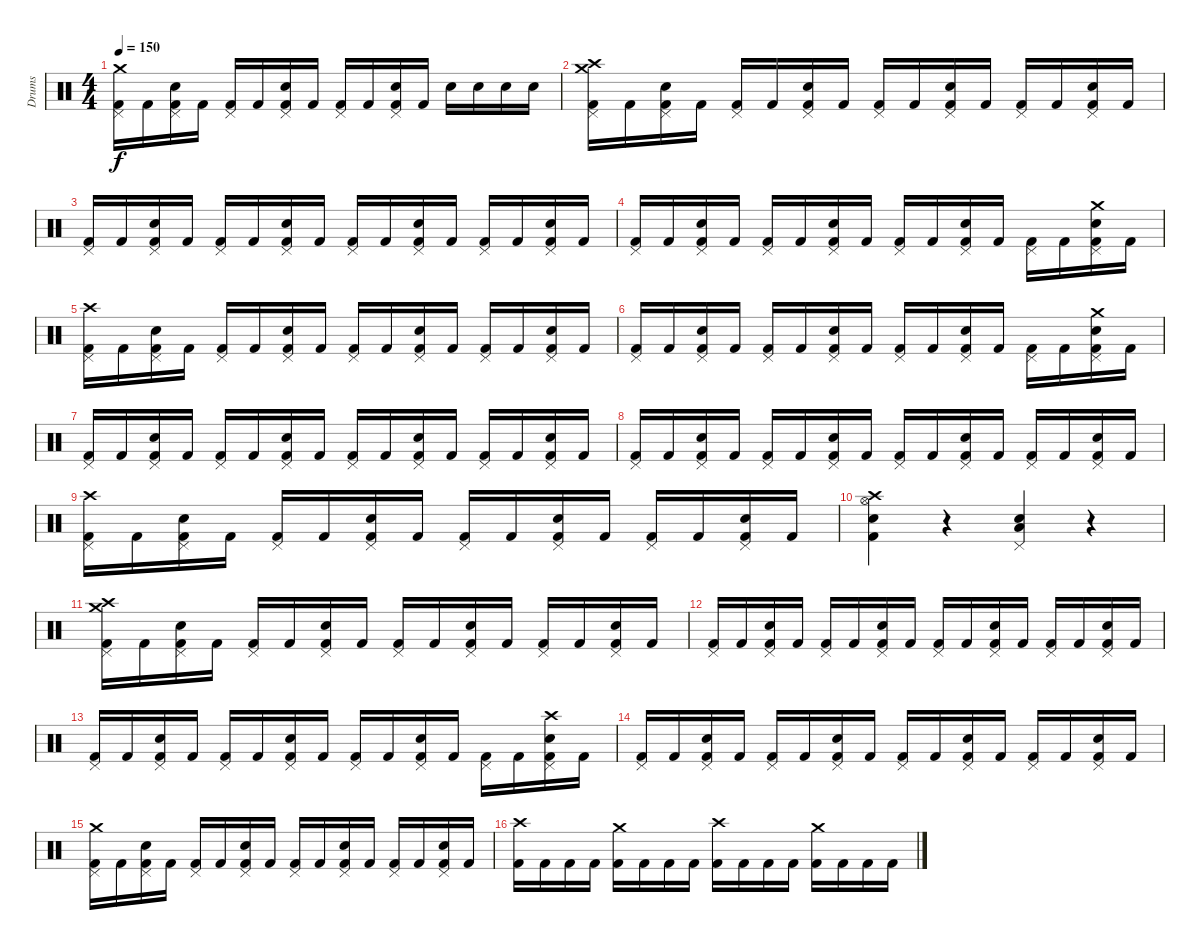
\track ("Drums" "Drums") {instrument percussion}
\staff {score}
\articulation defaults
\ts (4 4)
\tempo 150
\clef neutral
\ks c
("Crash medium (hit)" "Pedal Hi-Hat (hit)" "Kick (hit) 2").16{dy f} "Kick (hit) 2".16 ("Pedal Hi-Hat (hit)" "Kick (hit) 2" "Electric Snare (hit)").16 "Kick (hit) 2".16 ("Pedal Hi-Hat (hit)" "Kick (hit) 2").16 "Kick (hit) 2".16 ("Pedal Hi-Hat (hit)" "Kick (hit) 2" "Electric Snare (hit)").16 "Kick (hit) 2".16 ("Pedal Hi-Hat (hit)" "Kick (hit) 2").16 "Kick (hit) 2".16 ("Pedal Hi-Hat (hit)" "Kick (hit) 2" "Electric Snare (hit)").16 "Kick (hit) 2".16 "Electric Snare (hit)".16 "Electric Snare (hit)".16 "Electric Snare (hit)".16 "Electric Snare (hit)".16 |
("Crash medium (hit)" "Pedal Hi-Hat (hit)" "Kick (hit) 2" "Crash high (hit)").16 "Kick (hit) 2".16 ("Pedal Hi-Hat (hit)" "Kick (hit) 2" "Electric Snare (hit)").16 "Kick (hit) 2".16 ("Pedal Hi-Hat (hit)" "Kick (hit) 2").16 "Kick (hit) 2".16 ("Pedal Hi-Hat (hit)" "Kick (hit) 2" "Electric Snare (hit)").16 "Kick (hit) 2".16 ("Pedal Hi-Hat (hit)" "Kick (hit) 2").16 "Kick (hit) 2".16 ("Pedal Hi-Hat (hit)" "Kick (hit) 2" "Electric Snare (hit)").16 "Kick (hit) 2".16 ("Pedal Hi-Hat (hit)" "Kick (hit) 2").16 "Kick (hit) 2".16 ("Pedal Hi-Hat (hit)" "Kick (hit) 2" "Electric Snare (hit)").16 "Kick (hit) 2".16 |
("Pedal Hi-Hat (hit)" "Kick (hit) 2").16 "Kick (hit) 2".16 ("Pedal Hi-Hat (hit)" "Kick (hit) 2" "Electric Snare (hit)").16 "Kick (hit) 2".16 ("Pedal Hi-Hat (hit)" "Kick (hit) 2").16 "Kick (hit) 2".16 ("Pedal Hi-Hat (hit)" "Kick (hit) 2" "Electric Snare (hit)").16 "Kick (hit) 2".16 ("Pedal Hi-Hat (hit)" "Kick (hit) 2").16 "Kick (hit) 2".16 ("Pedal Hi-Hat (hit)" "Kick (hit) 2" "Electric Snare (hit)").16 "Kick (hit) 2".16 ("Pedal Hi-Hat (hit)" "Kick (hit) 2").16 "Kick (hit) 2".16 ("Pedal Hi-Hat (hit)" "Kick (hit) 2" "Electric Snare (hit)").16 "Kick (hit) 2".16 |
("Pedal Hi-Hat (hit)" "Kick (hit) 2").16 "Kick (hit) 2".16 ("Pedal Hi-Hat (hit)" "Kick (hit) 2" "Electric Snare (hit)").16 "Kick (hit) 2".16 ("Pedal Hi-Hat (hit)" "Kick (hit) 2").16 "Kick (hit) 2".16 ("Pedal Hi-Hat (hit)" "Kick (hit) 2" "Electric Snare (hit)").16 "Kick (hit) 2".16 ("Pedal Hi-Hat (hit)" "Kick (hit) 2").16 "Kick (hit) 2".16 ("Pedal Hi-Hat (hit)" "Kick (hit) 2" "Electric Snare (hit)").16 "Kick (hit) 2".16 ("Pedal Hi-Hat (hit)" "Kick (hit) 2").16 "Kick (hit) 2".16 ("Crash medium (hit)" "Pedal Hi-Hat (hit)" "Kick (hit) 2" "Electric Snare (hit)").16 "Kick (hit) 2".16 |
("Crash high (hit)" "Pedal Hi-Hat (hit)" "Kick (hit) 2").16 "Kick (hit) 2".16 ("Pedal Hi-Hat (hit)" "Kick (hit) 2" "Electric Snare (hit)").16 "Kick (hit) 2".16 ("Pedal Hi-Hat (hit)" "Kick (hit) 2").16 "Kick (hit) 2".16 ("Pedal Hi-Hat (hit)" "Kick (hit) 2" "Electric Snare (hit)").16 "Kick (hit) 2".16 ("Pedal Hi-Hat (hit)" "Kick (hit) 2").16 "Kick (hit) 2".16 ("Pedal Hi-Hat (hit)" "Kick (hit) 2" "Electric Snare (hit)").16 "Kick (hit) 2".16 ("Pedal Hi-Hat (hit)" "Kick (hit) 2").16 "Kick (hit) 2".16 ("Pedal Hi-Hat (hit)" "Kick (hit) 2" "Electric Snare (hit)").16 "Kick (hit) 2".16 |
("Pedal Hi-Hat (hit)" "Kick (hit) 2").16 "Kick (hit) 2".16 ("Pedal Hi-Hat (hit)" "Kick (hit) 2" "Electric Snare (hit)").16 "Kick (hit) 2".16 ("Pedal Hi-Hat (hit)" "Kick (hit) 2").16 "Kick (hit) 2".16 ("Pedal Hi-Hat (hit)" "Kick (hit) 2" "Electric Snare (hit)").16 "Kick (hit) 2".16 ("Pedal Hi-Hat (hit)" "Kick (hit) 2").16 "Kick (hit) 2".16 ("Pedal Hi-Hat (hit)" "Kick (hit) 2" "Electric Snare (hit)").16 "Kick (hit) 2".16 ("Pedal Hi-Hat (hit)" "Kick (hit) 2").16 "Kick (hit) 2".16 ("Crash medium (hit)" "Pedal Hi-Hat (hit)" "Kick (hit) 2" "Electric Snare (hit)").16 "Kick (hit) 2".16 |
("Pedal Hi-Hat (hit)" "Kick (hit) 2").16 "Kick (hit) 2".16 ("Pedal Hi-Hat (hit)" "Kick (hit) 2" "Electric Snare (hit)").16 "Kick (hit) 2".16 ("Pedal Hi-Hat (hit)" "Kick (hit) 2").16 "Kick (hit) 2".16 ("Pedal Hi-Hat (hit)" "Kick (hit) 2" "Electric Snare (hit)").16 "Kick (hit) 2".16 ("Pedal Hi-Hat (hit)" "Kick (hit) 2").16 "Kick (hit) 2".16 ("Pedal Hi-Hat (hit)" "Kick (hit) 2" "Electric Snare (hit)").16 "Kick (hit) 2".16 ("Pedal Hi-Hat (hit)" "Kick (hit) 2").16 "Kick (hit) 2".16 ("Pedal Hi-Hat (hit)" "Kick (hit) 2" "Electric Snare (hit)").16 "Kick (hit) 2".16 |
("Pedal Hi-Hat (hit)" "Kick (hit) 2").16 "Kick (hit) 2".16 ("Pedal Hi-Hat (hit)" "Kick (hit) 2" "Electric Snare (hit)").16 "Kick (hit) 2".16 ("Pedal Hi-Hat (hit)" "Kick (hit) 2").16 "Kick (hit) 2".16 ("Pedal Hi-Hat (hit)" "Kick (hit) 2" "Electric Snare (hit)").16 "Kick (hit) 2".16 ("Pedal Hi-Hat (hit)" "Kick (hit) 2").16 "Kick (hit) 2".16 ("Pedal Hi-Hat (hit)" "Kick (hit) 2" "Electric Snare (hit)").16 "Kick (hit) 2".16 ("Pedal Hi-Hat (hit)" "Kick (hit) 2").16 "Kick (hit) 2".16 ("Pedal Hi-Hat (hit)" "Kick (hit) 2" "Electric Snare (hit)").16 "Kick (hit) 2".16 |
("Crash high (hit)" "Pedal Hi-Hat (hit)" "Kick (hit) 2").16 "Kick (hit) 2".16 ("Pedal Hi-Hat (hit)" "Kick (hit) 2" "Electric Snare (hit)").16 "Kick (hit) 2".16 ("Pedal Hi-Hat (hit)" "Kick (hit) 2").16 "Kick (hit) 2".16 ("Pedal Hi-Hat (hit)" "Kick (hit) 2" "Electric Snare (hit)").16 "Kick (hit) 2".16 ("Pedal Hi-Hat (hit)" "Kick (hit) 2").16 "Kick (hit) 2".16 ("Pedal Hi-Hat (hit)" "Kick (hit) 2" "Electric Snare (hit)").16 "Kick (hit) 2".16 ("Pedal Hi-Hat (hit)" "Kick (hit) 2").16 "Kick (hit) 2".16 ("Pedal Hi-Hat (hit)" "Kick (hit) 2" "Electric Snare (hit)").16 "Kick (hit) 2".16 |
("Hi-Hat (open)" "Crash high (hit)" "Kick (hit) 2" "Electric Snare (hit)").4 r.4 ("Pedal Hi-Hat (hit)" "Electric Snare (hit)" "Low Tom (hit)").4 r.4 |
("Crash high (hit)" "Pedal Hi-Hat (hit)" "Kick (hit) 2" "Crash medium (hit)").16 "Kick (hit) 2".16 ("Pedal Hi-Hat (hit)" "Kick (hit) 2" "Electric Snare (hit)").16 "Kick (hit) 2".16 ("Pedal Hi-Hat (hit)" "Kick (hit) 2").16 "Kick (hit) 2".16 ("Pedal Hi-Hat (hit)" "Kick (hit) 2" "Electric Snare (hit)").16 "Kick (hit) 2".16 ("Pedal Hi-Hat (hit)" "Kick (hit) 2").16 "Kick (hit) 2".16 ("Pedal Hi-Hat (hit)" "Kick (hit) 2" "Electric Snare (hit)").16 "Kick (hit) 2".16 ("Pedal Hi-Hat (hit)" "Kick (hit) 2").16 "Kick (hit) 2".16 ("Pedal Hi-Hat (hit)" "Kick (hit) 2" "Electric Snare (hit)").16 "Kick (hit) 2".16 |
("Pedal Hi-Hat (hit)" "Kick (hit) 2").16 "Kick (hit) 2".16 ("Pedal Hi-Hat (hit)" "Kick (hit) 2" "Electric Snare (hit)").16 "Kick (hit) 2".16 ("Pedal Hi-Hat (hit)" "Kick (hit) 2").16 "Kick (hit) 2".16 ("Pedal Hi-Hat (hit)" "Kick (hit) 2" "Electric Snare (hit)").16 "Kick (hit) 2".16 ("Pedal Hi-Hat (hit)" "Kick (hit) 2").16 "Kick (hit) 2".16 ("Pedal Hi-Hat (hit)" "Kick (hit) 2" "Electric Snare (hit)").16 "Kick (hit) 2".16 ("Pedal Hi-Hat (hit)" "Kick (hit) 2").16 "Kick (hit) 2".16 ("Pedal Hi-Hat (hit)" "Kick (hit) 2" "Electric Snare (hit)").16 "Kick (hit) 2".16 |
("Pedal Hi-Hat (hit)" "Kick (hit) 2").16 "Kick (hit) 2".16 ("Pedal Hi-Hat (hit)" "Kick (hit) 2" "Electric Snare (hit)").16 "Kick (hit) 2".16 ("Pedal Hi-Hat (hit)" "Kick (hit) 2").16 "Kick (hit) 2".16 ("Pedal Hi-Hat (hit)" "Kick (hit) 2" "Electric Snare (hit)").16 "Kick (hit) 2".16 ("Pedal Hi-Hat (hit)" "Kick (hit) 2").16 "Kick (hit) 2".16 ("Pedal Hi-Hat (hit)" "Kick (hit) 2" "Electric Snare (hit)").16 "Kick (hit) 2".16 ("Pedal Hi-Hat (hit)" "Kick (hit) 2").16 "Kick (hit) 2".16 ("Crash high (hit)" "Pedal Hi-Hat (hit)" "Kick (hit) 2" "Electric Snare (hit)").16 "Kick (hit) 2".16 |
("Pedal Hi-Hat (hit)" "Kick (hit) 2").16 "Kick (hit) 2".16 ("Pedal Hi-Hat (hit)" "Kick (hit) 2" "Electric Snare (hit)").16 "Kick (hit) 2".16 ("Pedal Hi-Hat (hit)" "Kick (hit) 2").16 "Kick (hit) 2".16 ("Pedal Hi-Hat (hit)" "Kick (hit) 2" "Electric Snare (hit)").16 "Kick (hit) 2".16 ("Pedal Hi-Hat (hit)" "Kick (hit) 2").16 "Kick (hit) 2".16 ("Pedal Hi-Hat (hit)" "Kick (hit) 2" "Electric Snare (hit)").16 "Kick (hit) 2".16 ("Pedal Hi-Hat (hit)" "Kick (hit) 2").16 "Kick (hit) 2".16 ("Pedal Hi-Hat (hit)" "Kick (hit) 2" "Electric Snare (hit)").16 "Kick (hit) 2".16 |
("Crash medium (hit)" "Pedal Hi-Hat (hit)" "Kick (hit) 2").16 "Kick (hit) 2".16 ("Pedal Hi-Hat (hit)" "Kick (hit) 2" "Electric Snare (hit)").16 "Kick (hit) 2".16 ("Pedal Hi-Hat (hit)" "Kick (hit) 2").16 "Kick (hit) 2".16 ("Pedal Hi-Hat (hit)" "Kick (hit) 2" "Electric Snare (hit)").16 "Kick (hit) 2".16 ("Pedal Hi-Hat (hit)" "Kick (hit) 2").16 "Kick (hit) 2".16 ("Pedal Hi-Hat (hit)" "Kick (hit) 2" "Electric Snare (hit)").16 "Kick (hit) 2".16 ("Pedal Hi-Hat (hit)" "Kick (hit) 2").16 "Kick (hit) 2".16 ("Pedal Hi-Hat (hit)" "Kick (hit) 2" "Electric Snare (hit)").16 "Kick (hit) 2".16 |
("Crash high (hit)" "Kick (hit) 2").16 "Kick (hit) 2".16 "Kick (hit) 2".16 "Kick (hit) 2".16 ("Crash medium (hit)" "Kick (hit) 2").16 "Kick (hit) 2".16 "Kick (hit) 2".16 "Kick (hit) 2".16 ("Crash high (hit)" "Kick (hit) 2").16 "Kick (hit) 2".16 "Kick (hit) 2".16 "Kick (hit) 2".16 ("Crash medium (hit)" "Kick (hit) 2").16 "Kick (hit) 2".16 "Kick (hit) 2".16 "Kick (hit) 2".16
